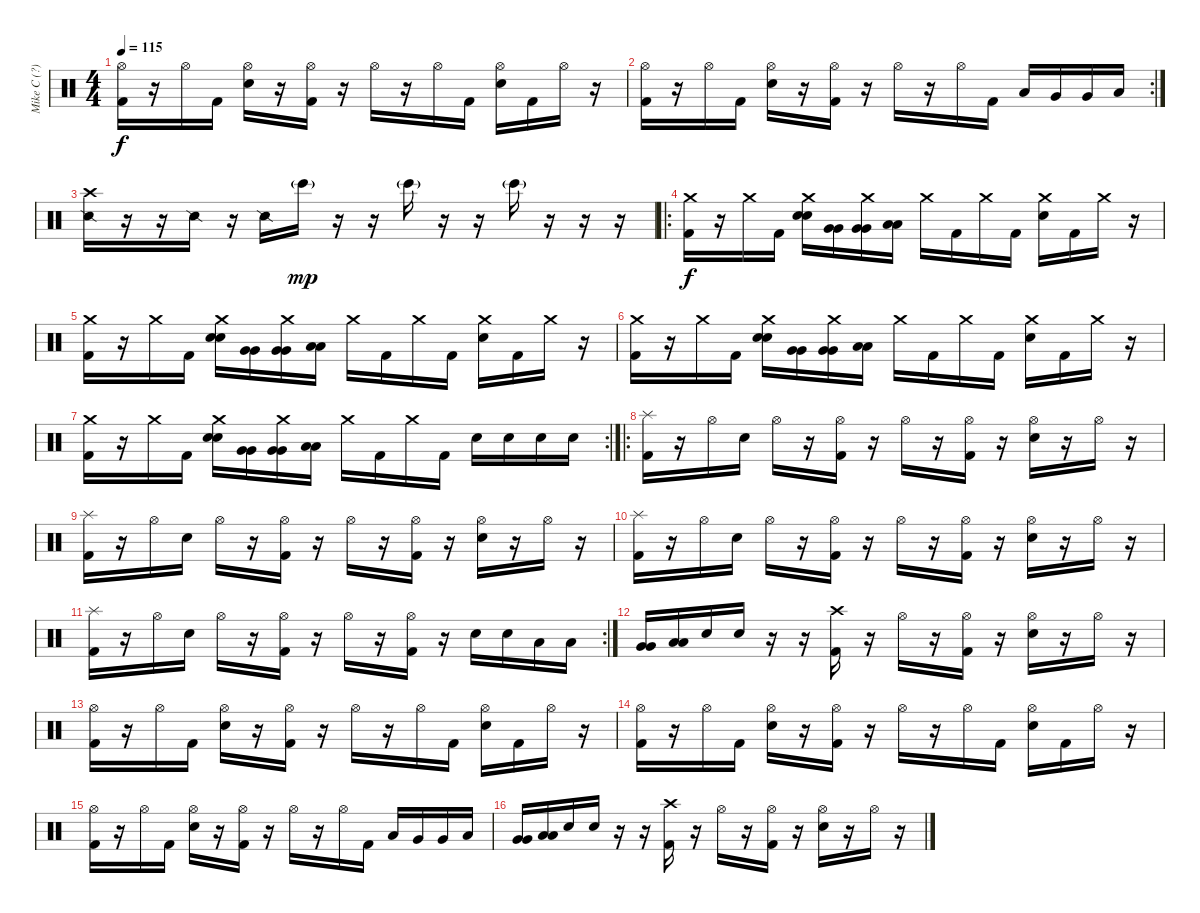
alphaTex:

\track ("Mike C (?)" "Mike C (?)") {instrument percussion}
\staff {score}
\articulation defaults
\ts (4 4)
\tempo 115
\clef neutral
\ks c
("Hi-Hat (open)" "Kick (hit) 2").16{dy f} r.16 "Hi-Hat (open)".16 "Kick (hit) 2".16 ("Hi-Hat (open)" "Snare (hit) 2").16 r.16 ("Hi-Hat (open)" "Kick (hit) 2").16 r.16 "Hi-Hat (open)".16 r.16 "Hi-Hat (open)".16 "Kick (hit) 2".16 ("Hi-Hat (open)" "Snare (hit) 2").16 "Kick (hit) 2".16 "Hi-Hat (open)".16 r.16 |
\rc 2
("Hi-Hat (open)" "Kick (hit) 2").16 r.16 "Hi-Hat (open)".16 "Kick (hit) 2".16 ("Hi-Hat (open)" "Snare (hit) 2").16 r.16 ("Hi-Hat (open)" "Kick (hit) 2").16 r.16 "Hi-Hat (open)".16 r.16 "Hi-Hat (open)".16 "Kick (hit) 2".16 "Low Tom (hit)".16 "Very Low Tom (hit)".16 "Very Low Tom (hit)".16 "Low Floor Tom (hit)".16 |
("Crash high (hit)" "Snare (side stick) 2").16 r.16 r.16 "Snare (side stick) 2".16 r.16 "Snare (side stick) 2".16 "Bongo High (hit)"{g}.16{dy mp} r.16 r.16 "Bongo High (hit)"{g}.16 r.16 r.16 "Bongo High (hit)"{g}.16 r.16 r.16 r.16 |
\ro
("Crash medium (hit)" "Kick (hit) 2").16{dy f} r.16 "Crash medium (hit)".16 "Kick (hit) 2".16 ("Crash medium (hit)" "Snare (hit) 2" "Snare (hit) 2").16 ("Very Low Tom (hit)" "Very Low Tom (hit)").16 ("Crash medium (hit)" "Very Low Tom (hit)" "Very Low Tom (hit)").16 ("Low Floor Tom (hit)" "Low Floor Tom (hit)").16 "Crash medium (hit)".16 "Kick (hit) 2".16 "Crash medium (hit)".16 "Kick (hit) 2".16 ("Crash medium (hit)" "Snare (hit) 2").16 "Kick (hit) 2".16 "Crash medium (hit)".16 r.16 |
("Crash medium (hit)" "Kick (hit) 2").16 r.16 "Crash medium (hit)".16 "Kick (hit) 2".16 ("Crash medium (hit)" "Snare (hit) 2" "Snare (hit) 2").16 ("Very Low Tom (hit)" "Very Low Tom (hit)").16 ("Crash medium (hit)" "Very Low Tom (hit)" "Very Low Tom (hit)").16 ("Low Floor Tom (hit)" "Low Floor Tom (hit)").16 "Crash medium (hit)".16 "Kick (hit) 2".16 "Crash medium (hit)".16 "Kick (hit) 2".16 ("Crash medium (hit)" "Snare (hit) 2").16 "Kick (hit) 2".16 "Crash medium (hit)".16 r.16 |
("Crash medium (hit)" "Kick (hit) 2").16 r.16 "Crash medium (hit)".16 "Kick (hit) 2".16 ("Crash medium (hit)" "Snare (hit) 2" "Snare (hit) 2").16 ("Very Low Tom (hit)" "Very Low Tom (hit)").16 ("Crash medium (hit)" "Very Low Tom (hit)" "Very Low Tom (hit)").16 ("Low Floor Tom (hit)" "Low Floor Tom (hit)").16 "Crash medium (hit)".16 "Kick (hit) 2".16 "Crash medium (hit)".16 "Kick (hit) 2".16 ("Crash medium (hit)" "Snare (hit) 2").16 "Kick (hit) 2".16 "Crash medium (hit)".16 r.16 |
\rc 2
("Crash medium (hit)" "Kick (hit) 2").16 r.16 "Crash medium (hit)".16 "Kick (hit) 2".16 ("Crash medium (hit)" "Snare (hit) 2" "Snare (hit) 2").16 ("Very Low Tom (hit)" "Very Low Tom (hit)").16 ("Crash medium (hit)" "Very Low Tom (hit)" "Very Low Tom (hit)").16 ("Low Floor Tom (hit)" "Low Floor Tom (hit)").16 "Crash medium (hit)".16 "Kick (hit) 2".16 "Crash medium (hit)".16 "Kick (hit) 2".16 "Snare (hit) 2".16 "Snare (hit) 2".16 "Snare (hit) 2".16 "Snare (hit) 2".16 |
\ro
("Splash (hit)" "Kick (hit) 2").16 r.16 "Hi-Hat (open)".16 "Snare (hit) 2".16 "Hi-Hat (open)".16 r.16 ("Hi-Hat (open)" "Kick (hit) 2").16 r.16 "Hi-Hat (open)".16 r.16 ("Hi-Hat (open)" "Kick (hit) 2").16 r.16 ("Hi-Hat (open)" "Snare (hit) 2").16 r.16 "Hi-Hat (open)".16 r.16 |
("Splash (hit)" "Kick (hit) 2").16 r.16 "Hi-Hat (open)".16 "Snare (hit) 2".16 "Hi-Hat (open)".16 r.16 ("Hi-Hat (open)" "Kick (hit) 2").16 r.16 "Hi-Hat (open)".16 r.16 ("Hi-Hat (open)" "Kick (hit) 2").16 r.16 ("Hi-Hat (open)" "Snare (hit) 2").16 r.16 "Hi-Hat (open)".16 r.16 |
("Splash (hit)" "Kick (hit) 2").16 r.16 "Hi-Hat (open)".16 "Snare (hit) 2".16 "Hi-Hat (open)".16 r.16 ("Hi-Hat (open)" "Kick (hit) 2").16 r.16 "Hi-Hat (open)".16 r.16 ("Hi-Hat (open)" "Kick (hit) 2").16 r.16 ("Hi-Hat (open)" "Snare (hit) 2").16 r.16 "Hi-Hat (open)".16 r.16 |
\rc 2
("Splash (hit)" "Kick (hit) 2").16 r.16 "Hi-Hat (open)".16 "Snare (hit) 2".16 "Hi-Hat (open)".16 r.16 ("Hi-Hat (open)" "Kick (hit) 2").16 r.16 "Hi-Hat (open)".16 r.16 ("Hi-Hat (open)" "Kick (hit) 2").16 r.16 "Snare (hit) 2".16 "Snare (hit) 2".16 "Low Tom (hit)".16 "Low Tom (hit)".16 |
("Very Low Tom (hit)" "Very Low Tom (hit)").16 ("Low Floor Tom (hit)" "Low Floor Tom (hit)").16 "Snare (hit) 2".16 "Snare (hit) 2".16 r.16 r.16 ("Crash high (hit)" "Kick (hit) 2").16 r.16 "Hi-Hat (open)".16 r.16 ("Hi-Hat (open)" "Kick (hit) 2").16 r.16 ("Hi-Hat (open)" "Snare (hit) 2").16 r.16 "Hi-Hat (open)".16 r.16 |
("Hi-Hat (open)" "Kick (hit) 2").16 r.16 "Hi-Hat (open)".16 "Kick (hit) 2".16 ("Hi-Hat (open)" "Snare (hit) 2").16 r.16 ("Hi-Hat (open)" "Kick (hit) 2").16 r.16 "Hi-Hat (open)".16 r.16 "Hi-Hat (open)".16 "Kick (hit) 2".16 ("Hi-Hat (open)" "Snare (hit) 2").16 "Kick (hit) 2".16 "Hi-Hat (open)".16 r.16 |
("Hi-Hat (open)" "Kick (hit) 2").16 r.16 "Hi-Hat (open)".16 "Kick (hit) 2".16 ("Hi-Hat (open)" "Snare (hit) 2").16 r.16 ("Hi-Hat (open)" "Kick (hit) 2").16 r.16 "Hi-Hat (open)".16 r.16 "Hi-Hat (open)".16 "Kick (hit) 2".16 ("Hi-Hat (open)" "Snare (hit) 2").16 "Kick (hit) 2".16 "Hi-Hat (open)".16 r.16 |
("Hi-Hat (open)" "Kick (hit) 2").16 r.16 "Hi-Hat (open)".16 "Kick (hit) 2".16 ("Hi-Hat (open)" "Snare (hit) 2").16 r.16 ("Hi-Hat (open)" "Kick (hit) 2").16 r.16 "Hi-Hat (open)".16 r.16 "Hi-Hat (open)".16 "Kick (hit) 2".16 "Low Tom (hit)".16 "Very Low Tom (hit)".16 "Very Low Tom (hit)".16 "Low Floor Tom (hit)".16 |
("Very Low Tom (hit)" "Very Low Tom (hit)").16 ("Low Floor Tom (hit)" "Low Floor Tom (hit)").16 "Snare (hit) 2".16 "Snare (hit) 2".16 r.16 r.16 ("Crash high (hit)" "Kick (hit) 2").16 r.16 "Hi-Hat (open)".16 r.16 ("Hi-Hat (open)" "Kick (hit) 2").16 r.16 ("Hi-Hat (open)" "Snare (hit) 2").16 r.16 "Hi-Hat (open)".16 r.16
